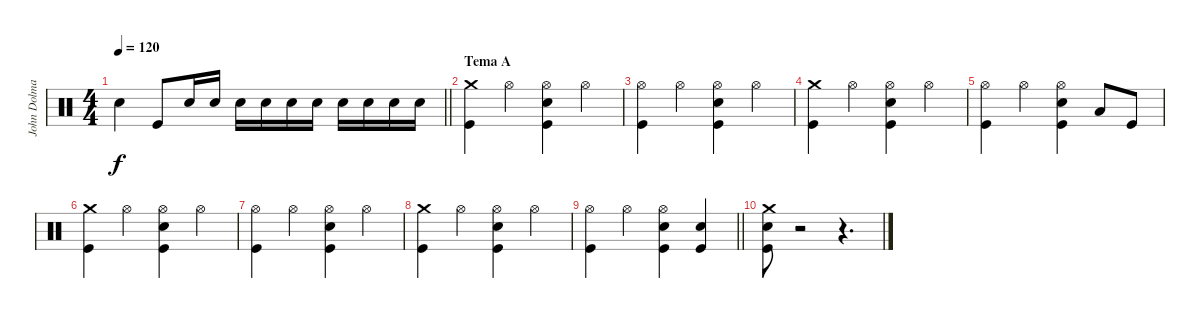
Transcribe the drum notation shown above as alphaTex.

\track ("John Dolmayan (Bateria)" "John Dolma") {instrument percussion}
\staff {score}
\articulation defaults
\ts (4 4)
\tempo 120
\clef neutral
\barLineRight lightlight
\ks c "Snare (hit) 2".4{dy f} "Kick (hit)".8 "Snare (hit) 2".16 "Snare (hit) 2".16 "Snare (hit) 2".16 "Snare (hit) 2".16 "Snare (hit) 2".16 "Snare (hit) 2".16 "Snare (hit) 2".16 "Snare (hit) 2".16 "Snare (hit) 2".16 "Snare (hit) 2".16
|
\section ("" "Tema A")
("Crash medium (hit)" "Kick (hit)").4 "Hi-Hat (open)".4 ("Hi-Hat (open)" "Snare (hit) 2" "Kick (hit)").4 "Hi-Hat (open)".4 |
("Hi-Hat (open)" "Kick (hit)").4 "Hi-Hat (open)".4 ("Hi-Hat (open)" "Snare (hit) 2" "Kick (hit)").4 "Hi-Hat (open)".4 |
("Crash medium (hit)" "Kick (hit)").4 "Hi-Hat (open)".4 ("Hi-Hat (open)" "Snare (hit) 2" "Kick (hit)").4 "Hi-Hat (open)".4 |
("Hi-Hat (open)" "Kick (hit)").4 "Hi-Hat (open)".4 ("Hi-Hat (open)" "Snare (hit) 2" "Kick (hit)").4 "Low Floor Tom (hit)".8 "Kick (hit)".8 |
("Crash medium (hit)" "Kick (hit)").4 "Hi-Hat (open)".4 ("Hi-Hat (open)" "Snare (hit) 2" "Kick (hit)").4 "Hi-Hat (open)".4 |
("Hi-Hat (open)" "Kick (hit)").4 "Hi-Hat (open)".4 ("Hi-Hat (open)" "Snare (hit) 2" "Kick (hit)").4 "Hi-Hat (open)".4 |
("Crash medium (hit)" "Kick (hit)").4 "Hi-Hat (open)".4 ("Hi-Hat (open)" "Snare (hit) 2" "Kick (hit)").4 "Hi-Hat (open)".4 |
\barLineRight lightlight
("Hi-Hat (open)" "Kick (hit)").4 "Hi-Hat (open)".4 ("Hi-Hat (open)" "Snare (hit) 2" "Kick (hit)").4 ("Snare (hit) 2" "Kick (hit)").4 |
("Crash medium (hit)" "Snare (hit) 2" "Kick (hit)").8 r.2 r.4{d}
